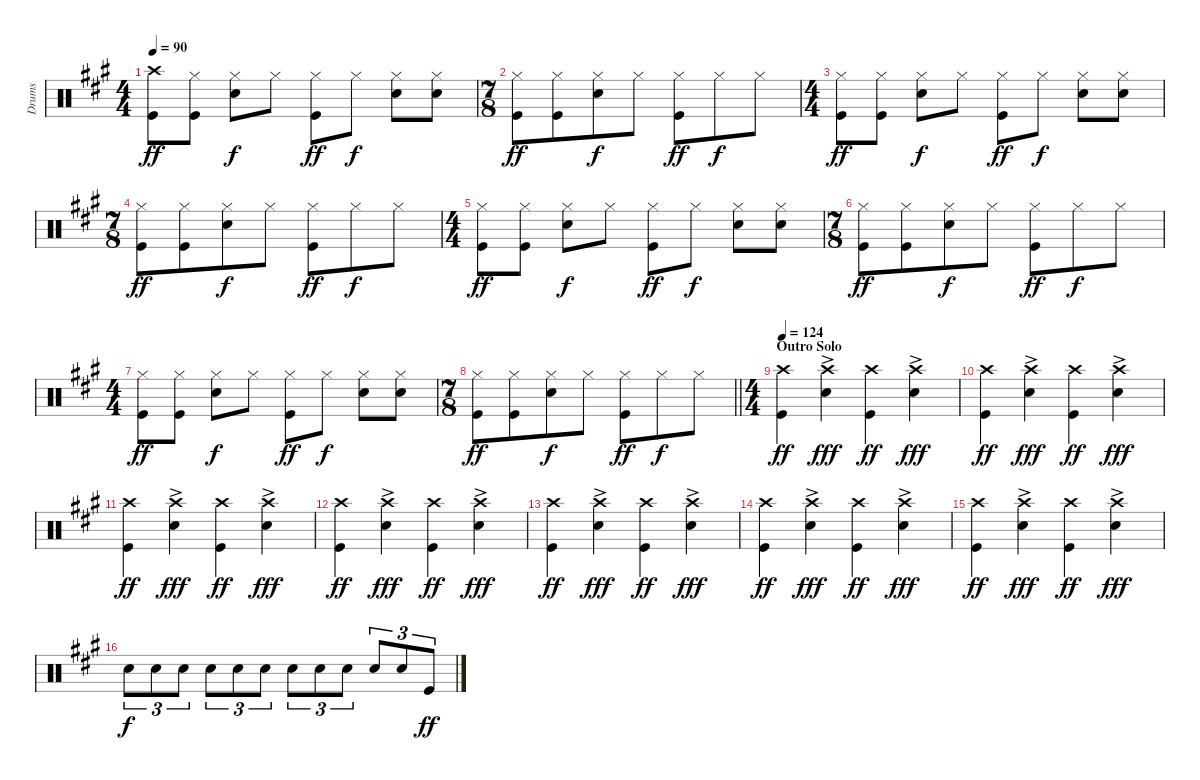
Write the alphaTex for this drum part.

\track ("Drums" "Drums") {instrument percussion}
\staff {score}
\articulation defaults
\ts (4 4)
\tempo 90
\clef neutral
\ks a
("Crash high (hit)" "Kick (hit)").8{dy ff} ("Hi-Hat (closed)" "Kick (hit)").8 ("Hi-Hat (closed)" "Snare (hit) 2").8{dy f} "Hi-Hat (closed)".8 ("Hi-Hat (closed)" "Kick (hit)").8{dy ff} "Hi-Hat (closed)".8{dy f} ("Hi-Hat (closed)" "Snare (hit) 2").8 ("Hi-Hat (closed)" "Snare (hit) 2").8 |
\ts (7 8)
("Hi-Hat (closed)" "Kick (hit)").8{dy ff} ("Hi-Hat (closed)" "Kick (hit)").8 ("Hi-Hat (closed)" "Snare (hit) 2").8{dy f} "Hi-Hat (closed)".8 ("Hi-Hat (closed)" "Kick (hit)").8{dy ff} "Hi-Hat (closed)".8{dy f} "Hi-Hat (closed)".8 |
\ts (4 4)
("Hi-Hat (closed)" "Kick (hit)").8{dy ff} ("Hi-Hat (closed)" "Kick (hit)").8 ("Hi-Hat (closed)" "Snare (hit) 2").8{dy f} "Hi-Hat (closed)".8 ("Hi-Hat (closed)" "Kick (hit)").8{dy ff} "Hi-Hat (closed)".8{dy f} ("Hi-Hat (closed)" "Snare (hit) 2").8 ("Hi-Hat (closed)" "Snare (hit) 2").8 |
\ts (7 8)
("Hi-Hat (closed)" "Kick (hit)").8{dy ff} ("Hi-Hat (closed)" "Kick (hit)").8 ("Hi-Hat (closed)" "Snare (hit) 2").8{dy f} "Hi-Hat (closed)".8 ("Hi-Hat (closed)" "Kick (hit)").8{dy ff} "Hi-Hat (closed)".8{dy f} "Hi-Hat (closed)".8 |
\ts (4 4)
("Hi-Hat (closed)" "Kick (hit)").8{dy ff} ("Hi-Hat (closed)" "Kick (hit)").8 ("Hi-Hat (closed)" "Snare (hit) 2").8{dy f} "Hi-Hat (closed)".8 ("Hi-Hat (closed)" "Kick (hit)").8{dy ff} "Hi-Hat (closed)".8{dy f} ("Hi-Hat (closed)" "Snare (hit) 2").8 ("Hi-Hat (closed)" "Snare (hit) 2").8 |
\ts (7 8)
("Hi-Hat (closed)" "Kick (hit)").8{dy ff} ("Hi-Hat (closed)" "Kick (hit)").8 ("Hi-Hat (closed)" "Snare (hit) 2").8{dy f} "Hi-Hat (closed)".8 ("Hi-Hat (closed)" "Kick (hit)").8{dy ff} "Hi-Hat (closed)".8{dy f} "Hi-Hat (closed)".8 |
\ts (4 4)
("Hi-Hat (closed)" "Kick (hit)").8{dy ff} ("Hi-Hat (closed)" "Kick (hit)").8 ("Hi-Hat (closed)" "Snare (hit) 2").8{dy f} "Hi-Hat (closed)".8 ("Hi-Hat (closed)" "Kick (hit)").8{dy ff} "Hi-Hat (closed)".8{dy f} ("Hi-Hat (closed)" "Snare (hit) 2").8 ("Hi-Hat (closed)" "Snare (hit) 2").8 |
\ts (7 8)
\barLineRight lightlight
("Hi-Hat (closed)" "Kick (hit)").8{dy ff} ("Hi-Hat (closed)" "Kick (hit)").8 ("Hi-Hat (closed)" "Snare (hit) 2").8{dy f} "Hi-Hat (closed)".8 ("Hi-Hat (closed)" "Kick (hit)").8{dy ff} "Hi-Hat (closed)".8{dy f} "Hi-Hat (closed)".8 |
\ts (4 4)
\section ("" "Outro Solo")
\tempo 124
("Crash high (hit)" "Kick (hit)").4{dy ff volume 12 balance 4} ("Crash high (hit)"{ac} "Snare (hit) 2").4{dy fff} ("Crash high (hit)" "Kick (hit)").4{dy ff} ("Crash high (hit)"{ac} "Snare (hit) 2").4{dy fff} |
("Crash high (hit)" "Kick (hit)").4{dy ff} ("Crash high (hit)"{ac} "Snare (hit) 2").4{dy fff} ("Crash high (hit)" "Kick (hit)").4{dy ff} ("Crash high (hit)"{ac} "Snare (hit) 2").4{dy fff} |
("Crash high (hit)" "Kick (hit)").4{dy ff} ("Crash high (hit)"{ac} "Snare (hit) 2").4{dy fff} ("Crash high (hit)" "Kick (hit)").4{dy ff} ("Crash high (hit)"{ac} "Snare (hit) 2").4{dy fff} |
("Crash high (hit)" "Kick (hit)").4{dy ff} ("Crash high (hit)"{ac} "Snare (hit) 2").4{dy fff} ("Crash high (hit)" "Kick (hit)").4{dy ff} ("Crash high (hit)"{ac} "Snare (hit) 2").4{dy fff} |
("Crash high (hit)" "Kick (hit)").4{dy ff} ("Crash high (hit)"{ac} "Snare (hit) 2").4{dy fff} ("Crash high (hit)" "Kick (hit)").4{dy ff} ("Crash high (hit)"{ac} "Snare (hit) 2").4{dy fff} |
("Crash high (hit)" "Kick (hit)").4{dy ff} ("Crash high (hit)"{ac} "Snare (hit) 2").4{dy fff} ("Crash high (hit)" "Kick (hit)").4{dy ff} ("Crash high (hit)"{ac} "Snare (hit) 2").4{dy fff} |
("Crash high (hit)" "Kick (hit)").4{dy ff} ("Crash high (hit)"{ac} "Snare (hit) 2").4{dy fff} ("Crash high (hit)" "Kick (hit)").4{dy ff} ("Crash high (hit)"{ac} "Snare (hit) 2").4{dy fff} |
"Snare (hit) 2".8{tu (3 2) dy f} "Snare (hit) 2".8{tu (3 2)} "Snare (hit) 2".8{tu (3 2)} "Snare (hit) 2".8{tu (3 2)} "Snare (hit) 2".8{tu (3 2)} "Snare (hit) 2".8{tu (3 2)} "Snare (hit) 2".8{tu (3 2)} "Snare (hit) 2".8{tu (3 2)} "Snare (hit) 2".8{tu (3 2)} "Snare (hit) 2".8{tu (3 2)} "Snare (hit) 2".8{tu (3 2)} "Kick (hit)".8{tu (3 2) dy ff}
